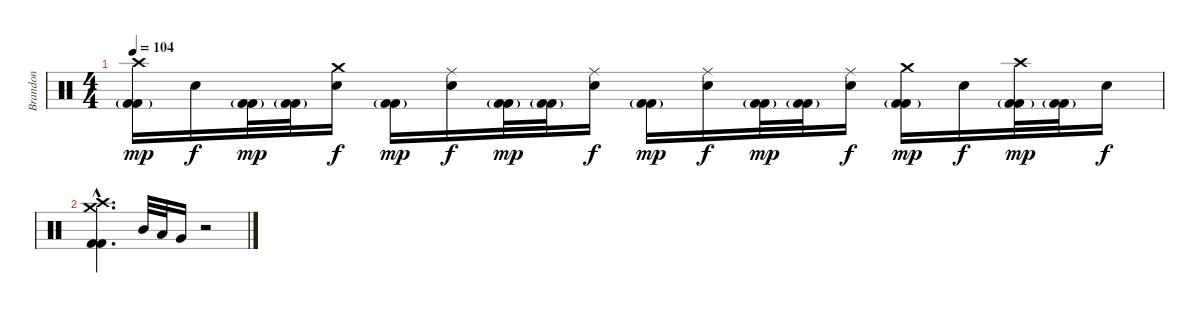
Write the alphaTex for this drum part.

\track ("Brandon" "Brandon") {instrument percussion}
\staff {score}
\articulation defaults
\ts (4 4)
\tempo 104
\clef neutral
\ks c
("Crash high (hit)" "Kick (hit) 2"{g} "Kick (hit) 2").16{dy mp} "Electric Snare (hit)".16{dy f} ("Kick (hit) 2"{g} "Kick (hit) 2").32{dy mp} ("Kick (hit) 2"{g} "Kick (hit) 2").32 ("Crash medium (hit)" "Electric Snare (hit)").16{dy f} ("Kick (hit) 2"{g} "Kick (hit) 2").16{dy mp} ("Ride (middle)" "Electric Snare (hit)").16{dy f} ("Kick (hit) 2"{g} "Kick (hit) 2").32{dy mp} ("Kick (hit) 2"{g} "Kick (hit) 2").32 ("Ride (middle)" "Electric Snare (hit)").16{dy f} ("Kick (hit) 2"{g} "Kick (hit) 2").16{dy mp} ("Ride (middle)" "Electric Snare (hit)").16{dy f} ("Kick (hit) 2"{g} "Kick (hit) 2").32{dy mp} ("Kick (hit) 2"{g} "Kick (hit) 2").32 ("Ride (middle)" "Electric Snare (hit)").16{dy f} ("Crash medium (hit)" "Kick (hit) 2"{g} "Kick (hit) 2").16{dy mp} "Electric Snare (hit)".16{dy f} ("Crash high (hit)" "Kick (hit) 2"{g} "Kick (hit) 2").32{dy mp} ("Kick (hit) 2"{g} "Kick (hit) 2").32 "Electric Snare (hit)".16{dy f} |
("Crash high (hit)"{hac} "Crash medium (hit)"{hac} "Kick (hit) 2"{hac} "Kick (hit) 2"{hac}).4{d} "Mid Tom (hit)".32 "Low Tom (hit)".32 "Very Low Tom (hit)".16 r.2
